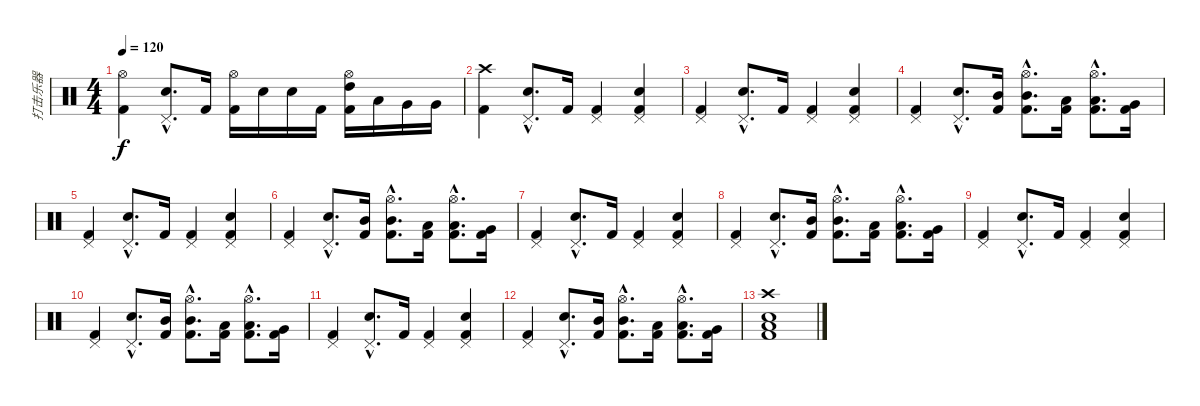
\track ("打击乐器" "打击乐器") {instrument percussion}
\staff {score}
\articulation defaults
\ts (4 4)
\tempo 120
\clef neutral
\ks c
("Hi-Hat (open)" "Kick (hit) 2").4{dy f} ("Pedal Hi-Hat (hit)"{hac} "Snare (hit) 2"{hac}).8{d} "Kick (hit) 2".16 ("Hi-Hat (open)" "Kick (hit) 2").16 "Snare (hit) 2".16 "Snare (hit) 2".16 "Kick (hit) 2".16 ("Hi-Hat (open)" "High Tom (hit)" "Kick (hit) 2").16 "Low Tom (hit)".16 "Very Low Tom (hit)".16 "Very Low Tom (hit)".16 |
("Crash high (hit)" "Kick (hit) 2").4 ("Pedal Hi-Hat (hit)"{hac} "Snare (hit) 2"{hac}).8{d} "Kick (hit) 2".16 ("Pedal Hi-Hat (hit)" "Kick (hit) 2").4 ("Pedal Hi-Hat (hit)" "Snare (hit) 2" "Kick (hit) 2").4 |
("Pedal Hi-Hat (hit)" "Kick (hit) 2").4 ("Pedal Hi-Hat (hit)"{hac} "Snare (hit) 2"{hac}).8{d} "Kick (hit) 2".16 ("Pedal Hi-Hat (hit)" "Kick (hit) 2").4 ("Pedal Hi-Hat (hit)" "Snare (hit) 2" "Kick (hit) 2").4 |
("Pedal Hi-Hat (hit)" "Kick (hit) 2").4 ("Pedal Hi-Hat (hit)"{hac} "Snare (hit) 2"{hac}).8{d} ("Mid Tom (hit)" "Kick (hit) 2").16 ("Hi-Hat (open)"{hac} "Mid Tom (hit)"{hac} "Kick (hit) 2"{hac}).8{d} ("Low Tom (hit)" "Kick (hit) 2").16 ("Hi-Hat (open)"{hac} "Low Tom (hit)"{hac} "Kick (hit) 2"{hac}).8{d} ("Very Low Tom (hit)" "Kick (hit) 2").16 |
("Pedal Hi-Hat (hit)" "Kick (hit) 2").4 ("Pedal Hi-Hat (hit)"{hac} "Snare (hit) 2"{hac}).8{d} "Kick (hit) 2".16 ("Pedal Hi-Hat (hit)" "Kick (hit) 2").4 ("Pedal Hi-Hat (hit)" "Snare (hit) 2" "Kick (hit) 2").4 |
("Pedal Hi-Hat (hit)" "Kick (hit) 2").4 ("Pedal Hi-Hat (hit)"{hac} "Snare (hit) 2"{hac}).8{d} ("Mid Tom (hit)" "Kick (hit) 2").16 ("Hi-Hat (open)"{hac} "Mid Tom (hit)"{hac} "Kick (hit) 2"{hac}).8{d} ("Low Tom (hit)" "Kick (hit) 2").16 ("Hi-Hat (open)"{hac} "Low Tom (hit)"{hac} "Kick (hit) 2"{hac}).8{d} ("Very Low Tom (hit)" "Kick (hit) 2").16 |
("Pedal Hi-Hat (hit)" "Kick (hit) 2").4 ("Pedal Hi-Hat (hit)"{hac} "Snare (hit) 2"{hac}).8{d} "Kick (hit) 2".16 ("Pedal Hi-Hat (hit)" "Kick (hit) 2").4 ("Pedal Hi-Hat (hit)" "Snare (hit) 2" "Kick (hit) 2").4 |
("Pedal Hi-Hat (hit)" "Kick (hit) 2").4 ("Pedal Hi-Hat (hit)"{hac} "Snare (hit) 2"{hac}).8{d} ("Mid Tom (hit)" "Kick (hit) 2").16 ("Hi-Hat (open)"{hac} "Mid Tom (hit)"{hac} "Kick (hit) 2"{hac}).8{d} ("Low Tom (hit)" "Kick (hit) 2").16 ("Hi-Hat (open)"{hac} "Low Tom (hit)"{hac} "Kick (hit) 2"{hac}).8{d} ("Very Low Tom (hit)" "Kick (hit) 2").16 |
("Pedal Hi-Hat (hit)" "Kick (hit) 2").4 ("Pedal Hi-Hat (hit)"{hac} "Snare (hit) 2"{hac}).8{d} "Kick (hit) 2".16 ("Pedal Hi-Hat (hit)" "Kick (hit) 2").4 ("Pedal Hi-Hat (hit)" "Snare (hit) 2" "Kick (hit) 2").4 |
("Pedal Hi-Hat (hit)" "Kick (hit) 2").4 ("Pedal Hi-Hat (hit)"{hac} "Snare (hit) 2"{hac}).8{d} ("Mid Tom (hit)" "Kick (hit) 2").16 ("Hi-Hat (open)"{hac} "Mid Tom (hit)"{hac} "Kick (hit) 2"{hac}).8{d} ("Low Tom (hit)" "Kick (hit) 2").16 ("Hi-Hat (open)"{hac} "Low Tom (hit)"{hac} "Kick (hit) 2"{hac}).8{d} ("Very Low Tom (hit)" "Kick (hit) 2").16 |
("Pedal Hi-Hat (hit)" "Kick (hit) 2").4 ("Pedal Hi-Hat (hit)"{hac} "Snare (hit) 2"{hac}).8{d} "Kick (hit) 2".16 ("Pedal Hi-Hat (hit)" "Kick (hit) 2").4 ("Pedal Hi-Hat (hit)" "Snare (hit) 2" "Kick (hit) 2").4 |
("Pedal Hi-Hat (hit)" "Kick (hit) 2").4 ("Pedal Hi-Hat (hit)"{hac} "Snare (hit) 2"{hac}).8{d} ("Mid Tom (hit)" "Kick (hit) 2").16 ("Hi-Hat (open)"{hac} "Mid Tom (hit)"{hac} "Kick (hit) 2"{hac}).8{d} ("Low Tom (hit)" "Kick (hit) 2").16 ("Hi-Hat (open)"{hac} "Low Tom (hit)"{hac} "Kick (hit) 2"{hac}).8{d} ("Very Low Tom (hit)" "Kick (hit) 2").16 |
("Crash high (hit)" "Low Tom (hit)" "Snare (hit) 2" "Kick (hit) 2").1
